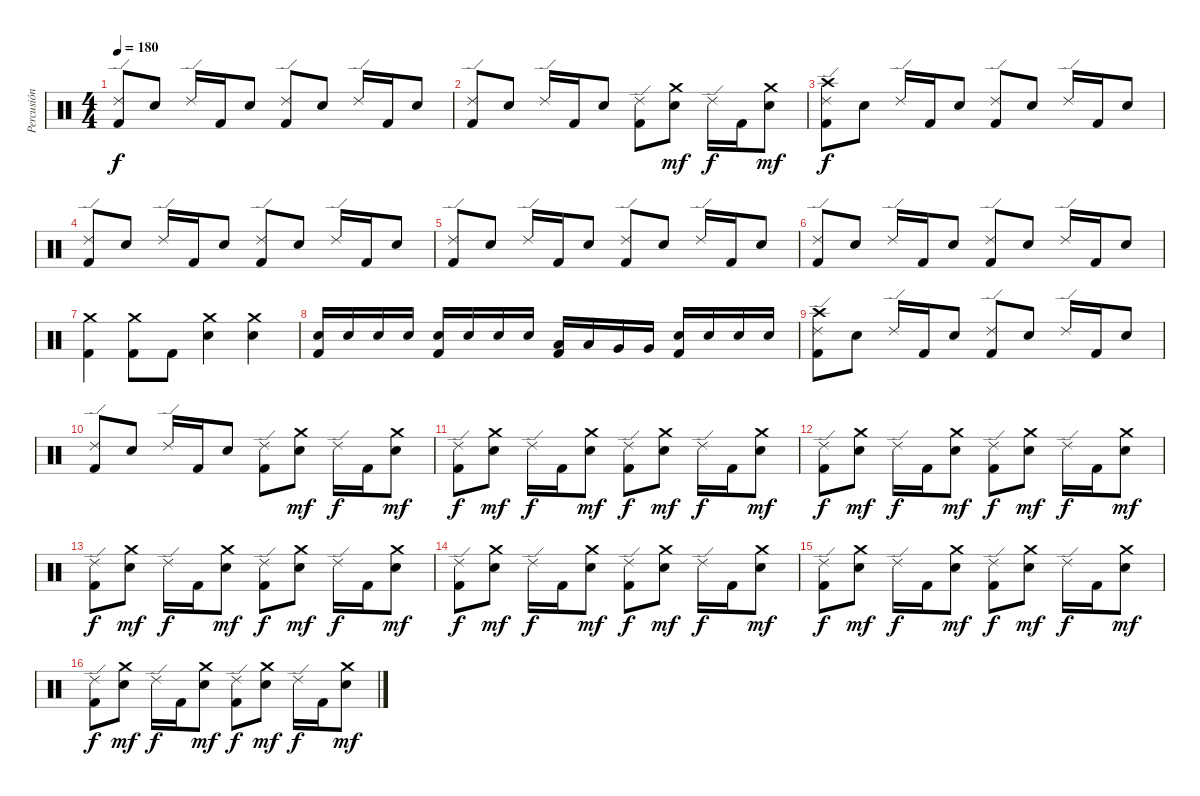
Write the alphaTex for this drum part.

\track ("Percusión" "Percusión") {instrument percussion}
\staff {score}
\articulation defaults
\ts (4 4)
\tempo 180
\clef neutral
\ks c
("Ride (edge) 2" "Kick (hit) 2").8{dy f} "Electric Snare (hit)".8 "Ride (edge) 2".16 "Kick (hit) 2".16 "Electric Snare (hit)".8 ("Ride (edge) 2" "Kick (hit) 2").8 "Electric Snare (hit)".8 "Ride (edge) 2".16 "Kick (hit) 2".16 "Electric Snare (hit)".8 |
("Ride (edge) 2" "Kick (hit) 2").8 "Electric Snare (hit)".8 "Ride (edge) 2".16 "Kick (hit) 2".16 "Electric Snare (hit)".8 ("Ride (edge) 2" "Kick (hit) 2").8 ("Crash medium (hit)" "Electric Snare (hit)").8{dy mf} "Ride (edge) 2".16{dy f} "Kick (hit) 2".16 ("Crash medium (hit)" "Electric Snare (hit)").8{dy mf} |
("Crash high (hit)" "Ride (edge) 2" "Kick (hit) 2").8{dy f volume 9} "Electric Snare (hit)".8 "Ride (edge) 2".16 "Kick (hit) 2".16 "Electric Snare (hit)".8 ("Ride (edge) 2" "Kick (hit) 2").8 "Electric Snare (hit)".8 "Ride (edge) 2".16 "Kick (hit) 2".16 "Electric Snare (hit)".8 |
("Ride (edge) 2" "Kick (hit) 2").8 "Electric Snare (hit)".8 "Ride (edge) 2".16 "Kick (hit) 2".16 "Electric Snare (hit)".8 ("Ride (edge) 2" "Kick (hit) 2").8 "Electric Snare (hit)".8 "Ride (edge) 2".16 "Kick (hit) 2".16 "Electric Snare (hit)".8 |
("Ride (edge) 2" "Kick (hit) 2").8 "Electric Snare (hit)".8 "Ride (edge) 2".16 "Kick (hit) 2".16 "Electric Snare (hit)".8 ("Ride (edge) 2" "Kick (hit) 2").8 "Electric Snare (hit)".8 "Ride (edge) 2".16 "Kick (hit) 2".16 "Electric Snare (hit)".8 |
("Ride (edge) 2" "Kick (hit) 2").8 "Electric Snare (hit)".8 "Ride (edge) 2".16 "Kick (hit) 2".16 "Electric Snare (hit)".8 ("Ride (edge) 2" "Kick (hit) 2").8 "Electric Snare (hit)".8 "Ride (edge) 2".16 "Kick (hit) 2".16 "Electric Snare (hit)".8 |
("Crash medium (hit)" "Kick (hit) 2").4{volume 6} ("Crash medium (hit)" "Kick (hit) 2").8 "Kick (hit) 2".8 ("Crash medium (hit)" "Electric Snare (hit)").4 ("Crash medium (hit)" "Electric Snare (hit)").4 |
("Electric Snare (hit)" "Kick (hit) 2").16 "Electric Snare (hit)".16 "Electric Snare (hit)".16 "Electric Snare (hit)".16 ("Electric Snare (hit)" "Kick (hit) 2").16 "Electric Snare (hit)".16 "Electric Snare (hit)".16 "Electric Snare (hit)".16 ("Low Tom (hit)" "Kick (hit) 2").16 "Low Tom (hit)".16 "Very Low Tom (hit)".16 "Very Low Tom (hit)".16 ("Electric Snare (hit)" "Kick (hit) 2").16 "Electric Snare (hit)".16 "Electric Snare (hit)".16 "Electric Snare (hit)".16 |
("Crash high (hit)" "Ride (edge) 2" "Kick (hit) 2").8 "Electric Snare (hit)".8 "Ride (edge) 2".16 "Kick (hit) 2".16 "Electric Snare (hit)".8 ("Ride (edge) 2" "Kick (hit) 2").8 "Electric Snare (hit)".8 "Ride (edge) 2".16 "Kick (hit) 2".16 "Electric Snare (hit)".8 |
("Ride (edge) 2" "Kick (hit) 2").8 "Electric Snare (hit)".8 "Ride (edge) 2".16 "Kick (hit) 2".16 "Electric Snare (hit)".8 ("Ride (edge) 2" "Kick (hit) 2").8 ("Crash medium (hit)" "Electric Snare (hit)").8{dy mf} "Ride (edge) 2".16{dy f} "Kick (hit) 2".16 ("Crash medium (hit)" "Electric Snare (hit)").8{dy mf} |
("Ride (edge) 2" "Kick (hit) 2").8{dy f volume 3} ("Crash medium (hit)" "Electric Snare (hit)").8{dy mf} "Ride (edge) 2".16{dy f} "Kick (hit) 2".16 ("Crash medium (hit)" "Electric Snare (hit)").8{dy mf} ("Ride (edge) 2" "Kick (hit) 2").8{dy f} ("Crash medium (hit)" "Electric Snare (hit)").8{dy mf} "Ride (edge) 2".16{dy f} "Kick (hit) 2".16 ("Crash medium (hit)" "Electric Snare (hit)").8{dy mf} |
("Ride (edge) 2" "Kick (hit) 2").8{dy f} ("Crash medium (hit)" "Electric Snare (hit)").8{dy mf} "Ride (edge) 2".16{dy f} "Kick (hit) 2".16 ("Crash medium (hit)" "Electric Snare (hit)").8{dy mf} ("Ride (edge) 2" "Kick (hit) 2").8{dy f} ("Crash medium (hit)" "Electric Snare (hit)").8{dy mf} "Ride (edge) 2".16{dy f} "Kick (hit) 2".16 ("Crash medium (hit)" "Electric Snare (hit)").8{dy mf} |
("Ride (edge) 2" "Kick (hit) 2").8{dy f} ("Crash medium (hit)" "Electric Snare (hit)").8{dy mf} "Ride (edge) 2".16{dy f} "Kick (hit) 2".16 ("Crash medium (hit)" "Electric Snare (hit)").8{dy mf} ("Ride (edge) 2" "Kick (hit) 2").8{dy f} ("Crash medium (hit)" "Electric Snare (hit)").8{dy mf} "Ride (edge) 2".16{dy f} "Kick (hit) 2".16 ("Crash medium (hit)" "Electric Snare (hit)").8{dy mf} |
("Ride (edge) 2" "Kick (hit) 2").8{dy f} ("Crash medium (hit)" "Electric Snare (hit)").8{dy mf} "Ride (edge) 2".16{dy f} "Kick (hit) 2".16 ("Crash medium (hit)" "Electric Snare (hit)").8{dy mf} ("Ride (edge) 2" "Kick (hit) 2").8{dy f} ("Crash medium (hit)" "Electric Snare (hit)").8{dy mf} "Ride (edge) 2".16{dy f} "Kick (hit) 2".16 ("Crash medium (hit)" "Electric Snare (hit)").8{dy mf} |
("Ride (edge) 2" "Kick (hit) 2").8{dy f volume 0} ("Crash medium (hit)" "Electric Snare (hit)").8{dy mf} "Ride (edge) 2".16{dy f} "Kick (hit) 2".16 ("Crash medium (hit)" "Electric Snare (hit)").8{dy mf} ("Ride (edge) 2" "Kick (hit) 2").8{dy f} ("Crash medium (hit)" "Electric Snare (hit)").8{dy mf} "Ride (edge) 2".16{dy f} "Kick (hit) 2".16 ("Crash medium (hit)" "Electric Snare (hit)").8{dy mf} |
("Ride (edge) 2" "Kick (hit) 2").8{dy f} ("Crash medium (hit)" "Electric Snare (hit)").8{dy mf} "Ride (edge) 2".16{dy f} "Kick (hit) 2".16 ("Crash medium (hit)" "Electric Snare (hit)").8{dy mf} ("Ride (edge) 2" "Kick (hit) 2").8{dy f} ("Crash medium (hit)" "Electric Snare (hit)").8{dy mf} "Ride (edge) 2".16{dy f} "Kick (hit) 2".16 ("Crash medium (hit)" "Electric Snare (hit)").8{dy mf}
